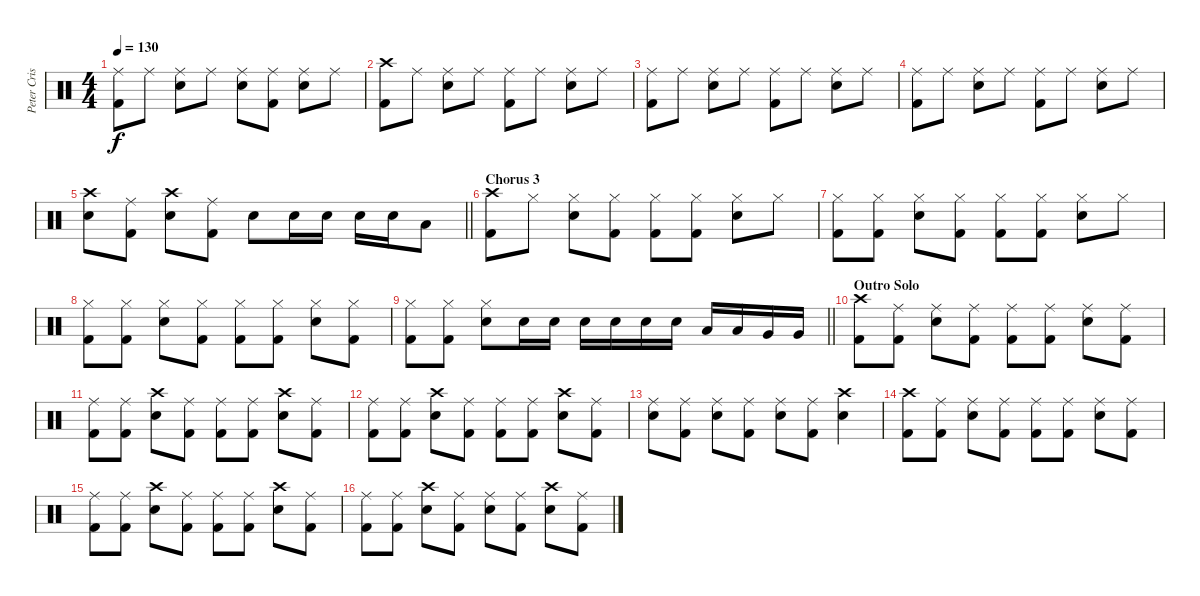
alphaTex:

\track ("Peter Criss" "Peter Cris") {instrument percussion}
\staff {score}
\articulation defaults
\ts (4 4)
\tempo 130
\clef neutral
\ks c
("Ride (middle)" "Kick (hit) 2").8{dy f} "Ride (middle)".8 ("Ride (middle)" "Snare (hit) 2").8 "Ride (middle)".8 ("Ride (middle)" "Snare (hit) 2").8 ("Ride (middle)" "Kick (hit) 2").8 ("Ride (middle)" "Snare (hit) 2").8 "Ride (middle)".8 |
("Crash high (hit)" "Kick (hit) 2").8 "Ride (middle)".8 ("Ride (middle)" "Snare (hit) 2").8 "Ride (middle)".8 ("Ride (middle)" "Kick (hit) 2").8 "Ride (middle)".8 ("Ride (middle)" "Snare (hit) 2").8 "Ride (middle)".8 |
("Ride (middle)" "Kick (hit) 2").8 "Ride (middle)".8 ("Ride (middle)" "Snare (hit) 2").8 "Ride (middle)".8 ("Ride (middle)" "Kick (hit) 2").8 "Ride (middle)".8 ("Ride (middle)" "Snare (hit) 2").8 "Ride (middle)".8 |
("Ride (middle)" "Kick (hit) 2").8 "Ride (middle)".8 ("Ride (middle)" "Snare (hit) 2").8 "Ride (middle)".8 ("Ride (middle)" "Kick (hit) 2").8 "Ride (middle)".8 ("Ride (middle)" "Snare (hit) 2").8 "Ride (middle)".8 |
\barLineRight lightlight
("Crash high (hit)" "Snare (hit) 2").8 ("Ride (middle)" "Kick (hit) 2").8 ("Crash high (hit)" "Snare (hit) 2").8 ("Ride (middle)" "Kick (hit) 2").8 "Snare (hit) 2".8 "Snare (hit) 2".16 "Snare (hit) 2".16 "Snare (hit) 2".16 "Snare (hit) 2".16 "Low Tom (hit)".8 |
\section ("" "Chorus 3")
("Crash high (hit)" "Kick (hit) 2").8 "Hi-Hat (closed)".8 ("Hi-Hat (closed)" "Snare (hit) 2").8 ("Hi-Hat (closed)" "Kick (hit) 2").8 ("Hi-Hat (closed)" "Kick (hit) 2").8 ("Hi-Hat (closed)" "Kick (hit) 2").8 ("Hi-Hat (closed)" "Snare (hit) 2").8 "Hi-Hat (closed)".8 |
("Hi-Hat (closed)" "Kick (hit) 2").8 ("Hi-Hat (closed)" "Kick (hit) 2").8 ("Hi-Hat (closed)" "Snare (hit) 2").8 ("Hi-Hat (closed)" "Kick (hit) 2").8 ("Hi-Hat (closed)" "Kick (hit) 2").8 ("Hi-Hat (closed)" "Kick (hit) 2").8 ("Hi-Hat (closed)" "Snare (hit) 2").8 "Hi-Hat (closed)".8 |
("Hi-Hat (closed)" "Kick (hit) 2").8 ("Hi-Hat (closed)" "Kick (hit) 2").8 ("Hi-Hat (closed)" "Snare (hit) 2").8 ("Hi-Hat (closed)" "Kick (hit) 2").8 ("Hi-Hat (closed)" "Kick (hit) 2").8 ("Hi-Hat (closed)" "Kick (hit) 2").8 ("Hi-Hat (closed)" "Snare (hit) 2").8 ("Hi-Hat (closed)" "Kick (hit) 2").8 |
\barLineRight lightlight
("Hi-Hat (closed)" "Kick (hit) 2").8 ("Hi-Hat (closed)" "Kick (hit) 2").8 ("Hi-Hat (closed)" "Snare (hit) 2").8 "Snare (hit) 2".16 "Snare (hit) 2".16 "Snare (hit) 2".16 "Snare (hit) 2".16 "Snare (hit) 2".16 "Snare (hit) 2".16 "Low Tom (hit)".16 "Low Tom (hit)".16 "Very Low Tom (hit)".16 "Very Low Tom (hit)".16 |
\section ("" "Outro Solo")
("Crash high (hit)" "Kick (hit) 2").8 ("Ride (middle)" "Kick (hit) 2").8 ("Ride (middle)" "Snare (hit) 2").8 ("Ride (middle)" "Kick (hit) 2").8 ("Ride (middle)" "Kick (hit) 2").8 ("Ride (middle)" "Kick (hit) 2").8 ("Ride (middle)" "Snare (hit) 2").8 ("Ride (middle)" "Kick (hit) 2").8 |
("Ride (middle)" "Kick (hit) 2").8 ("Ride (middle)" "Kick (hit) 2").8 ("Crash high (hit)" "Snare (hit) 2").8 ("Ride (middle)" "Kick (hit) 2").8 ("Ride (middle)" "Kick (hit) 2").8 ("Ride (middle)" "Kick (hit) 2").8 ("Crash high (hit)" "Snare (hit) 2").8 ("Ride (middle)" "Kick (hit) 2").8 |
("Ride (middle)" "Kick (hit) 2").8 ("Ride (middle)" "Kick (hit) 2").8 ("Crash high (hit)" "Snare (hit) 2").8 ("Ride (middle)" "Kick (hit) 2").8 ("Ride (middle)" "Kick (hit) 2").8 ("Ride (middle)" "Kick (hit) 2").8 ("Crash high (hit)" "Snare (hit) 2").8 ("Ride (middle)" "Kick (hit) 2").8 |
("Ride (middle)" "Snare (hit) 2").8 ("Ride (middle)" "Kick (hit) 2").8 ("Ride (middle)" "Snare (hit) 2").8 ("Ride (middle)" "Kick (hit) 2").8 ("Ride (middle)" "Snare (hit) 2").8 ("Ride (middle)" "Kick (hit) 2").8 ("Crash high (hit)" "Snare (hit) 2").4 |
("Crash high (hit)" "Kick (hit) 2").8 ("Ride (middle)" "Kick (hit) 2").8 ("Ride (middle)" "Snare (hit) 2").8 ("Ride (middle)" "Kick (hit) 2").8 ("Ride (middle)" "Kick (hit) 2").8 ("Ride (middle)" "Kick (hit) 2").8 ("Ride (middle)" "Snare (hit) 2").8 ("Ride (middle)" "Kick (hit) 2").8 |
("Ride (middle)" "Kick (hit) 2").8 ("Ride (middle)" "Kick (hit) 2").8 ("Crash high (hit)" "Snare (hit) 2").8 ("Ride (middle)" "Kick (hit) 2").8 ("Ride (middle)" "Kick (hit) 2").8 ("Ride (middle)" "Kick (hit) 2").8 ("Crash high (hit)" "Snare (hit) 2").8 ("Ride (middle)" "Kick (hit) 2").8 |
("Ride (middle)" "Kick (hit) 2").8 ("Ride (middle)" "Kick (hit) 2").8 ("Crash high (hit)" "Snare (hit) 2").8 ("Ride (middle)" "Kick (hit) 2").8 ("Ride (middle)" "Snare (hit) 2").8 ("Ride (middle)" "Kick (hit) 2").8 ("Crash high (hit)" "Snare (hit) 2").8 ("Ride (middle)" "Kick (hit) 2").8
